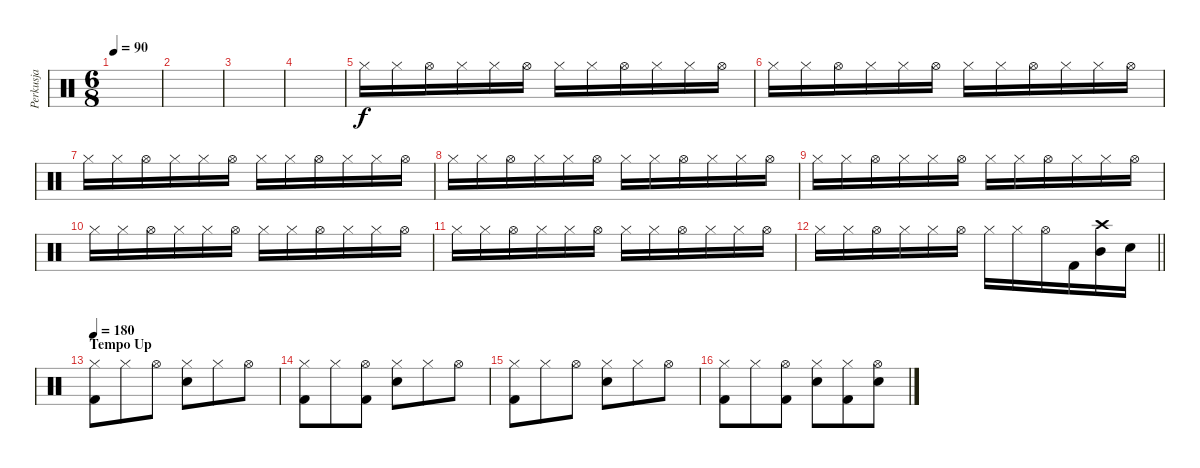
\track ("Perkusja" "Perkusja") {instrument percussion}
\staff {score}
\articulation defaults
\ts (6 8)
\tempo 90
\clef neutral
\ks c
|
|
|
|
"Hi-Hat (closed)".16 "Hi-Hat (closed)".16 "Hi-Hat (open)".16 "Hi-Hat (closed)".16 "Hi-Hat (closed)".16 "Hi-Hat (open)".16 "Hi-Hat (closed)".16 "Hi-Hat (closed)".16 "Hi-Hat (open)".16 "Hi-Hat (closed)".16 "Hi-Hat (closed)".16 "Hi-Hat (open)".16 |
"Hi-Hat (closed)".16 "Hi-Hat (closed)".16 "Hi-Hat (open)".16 "Hi-Hat (closed)".16 "Hi-Hat (closed)".16 "Hi-Hat (open)".16 "Hi-Hat (closed)".16 "Hi-Hat (closed)".16 "Hi-Hat (open)".16 "Hi-Hat (closed)".16 "Hi-Hat (closed)".16 "Hi-Hat (open)".16 |
"Hi-Hat (closed)".16 "Hi-Hat (closed)".16 "Hi-Hat (open)".16 "Hi-Hat (closed)".16 "Hi-Hat (closed)".16 "Hi-Hat (open)".16 "Hi-Hat (closed)".16 "Hi-Hat (closed)".16 "Hi-Hat (open)".16 "Hi-Hat (closed)".16 "Hi-Hat (closed)".16 "Hi-Hat (open)".16 |
"Hi-Hat (closed)".16 "Hi-Hat (closed)".16 "Hi-Hat (open)".16 "Hi-Hat (closed)".16 "Hi-Hat (closed)".16 "Hi-Hat (open)".16 "Hi-Hat (closed)".16 "Hi-Hat (closed)".16 "Hi-Hat (open)".16 "Hi-Hat (closed)".16 "Hi-Hat (closed)".16 "Hi-Hat (open)".16 |
"Hi-Hat (closed)".16 "Hi-Hat (closed)".16 "Hi-Hat (open)".16 "Hi-Hat (closed)".16 "Hi-Hat (closed)".16 "Hi-Hat (open)".16 "Hi-Hat (closed)".16 "Hi-Hat (closed)".16 "Hi-Hat (open)".16 "Hi-Hat (closed)".16 "Hi-Hat (closed)".16 "Hi-Hat (open)".16 |
"Hi-Hat (closed)".16 "Hi-Hat (closed)".16 "Hi-Hat (open)".16 "Hi-Hat (closed)".16 "Hi-Hat (closed)".16 "Hi-Hat (open)".16 "Hi-Hat (closed)".16 "Hi-Hat (closed)".16 "Hi-Hat (open)".16 "Hi-Hat (closed)".16 "Hi-Hat (closed)".16 "Hi-Hat (open)".16 |
"Hi-Hat (closed)".16 "Hi-Hat (closed)".16 "Hi-Hat (open)".16 "Hi-Hat (closed)".16 "Hi-Hat (closed)".16 "Hi-Hat (open)".16 "Hi-Hat (closed)".16 "Hi-Hat (closed)".16 "Hi-Hat (open)".16 "Hi-Hat (closed)".16 "Hi-Hat (closed)".16 "Hi-Hat (open)".16 |
\barLineRight lightlight "Hi-Hat (closed)".16 "Hi-Hat (closed)".16 "Hi-Hat (open)".16 "Hi-Hat (closed)".16 "Hi-Hat (closed)".16 "Hi-Hat (open)".16 "Hi-Hat (closed)".16 "Hi-Hat (closed)".16 "Hi-Hat (open)".16 "Kick (hit) 2".16
("Mid Tom (hit)" "Crash high (hit)").16 "Snare (hit) 2".16 |
\section ("" "Tempo Up")
\tempo 180
("Hi-Hat (closed)" "Kick (hit) 2").8 "Hi-Hat (closed)".8 "Hi-Hat (open)".8 ("Hi-Hat (closed)" "Snare (hit) 2").8 "Hi-Hat (closed)".8 "Hi-Hat (open)".8 |
("Hi-Hat (closed)" "Kick (hit) 2").8 "Hi-Hat (closed)".8 ("Hi-Hat (open)" "Kick (hit) 2").8 ("Hi-Hat (closed)" "Snare (hit) 2").8 "Hi-Hat (closed)".8 "Hi-Hat (open)".8 |
("Hi-Hat (closed)" "Kick (hit) 2").8 "Hi-Hat (closed)".8 "Hi-Hat (open)".8 ("Hi-Hat (closed)" "Snare (hit) 2").8 "Hi-Hat (closed)".8 "Hi-Hat (open)".8 |
("Hi-Hat (closed)" "Kick (hit) 2").8 "Hi-Hat (closed)".8 ("Hi-Hat (open)" "Kick (hit) 2").8 ("Hi-Hat (closed)" "Snare (hit) 2").8 ("Hi-Hat (closed)" "Kick (hit) 2").8 ("Hi-Hat (open)" "Snare (hit) 2").8
